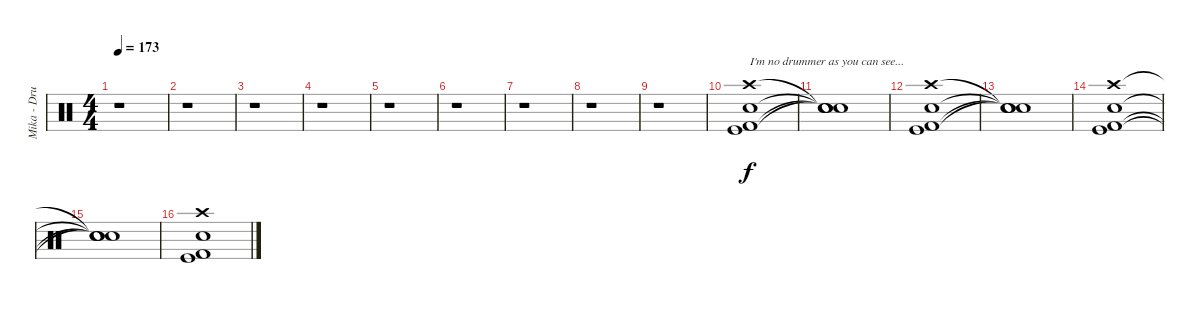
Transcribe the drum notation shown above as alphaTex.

\track ("Mika - Drums" "Mika - Dru") {instrument percussion}
\staff {score}
\articulation defaults
\ts (4 4)
\tempo 173
\clef neutral
\ks c
r.1{dy f} |
r.1 |
r.1 |
r.1 |
r.1 |
r.1 |
r.1 |
r.1 |
r.1 |
("Crash high (hit)" "Snare (hit) 2" "Kick (hit)" "Kick (hit) 2").1{txt "I'm no drummer as you can see..."} |
("Snare (hit)"{t} "Snare (hit)"{t} "Snare (hit)"{t} "Snare (hit)"{t}).1 |
("Crash high (hit)" "Snare (hit) 2" "Kick (hit)" "Kick (hit) 2").1 |
("Snare (hit)"{t} "Snare (hit)"{t} "Snare (hit)"{t} "Snare (hit)"{t}).1 |
("Crash high (hit)" "Snare (hit) 2" "Kick (hit)" "Kick (hit) 2").1 |
("Snare (hit)"{t} "Snare (hit)"{t} "Snare (hit)"{t} "Snare (hit)"{t}).1 |
("Crash high (hit)" "Snare (hit) 2" "Kick (hit)" "Kick (hit) 2").1
